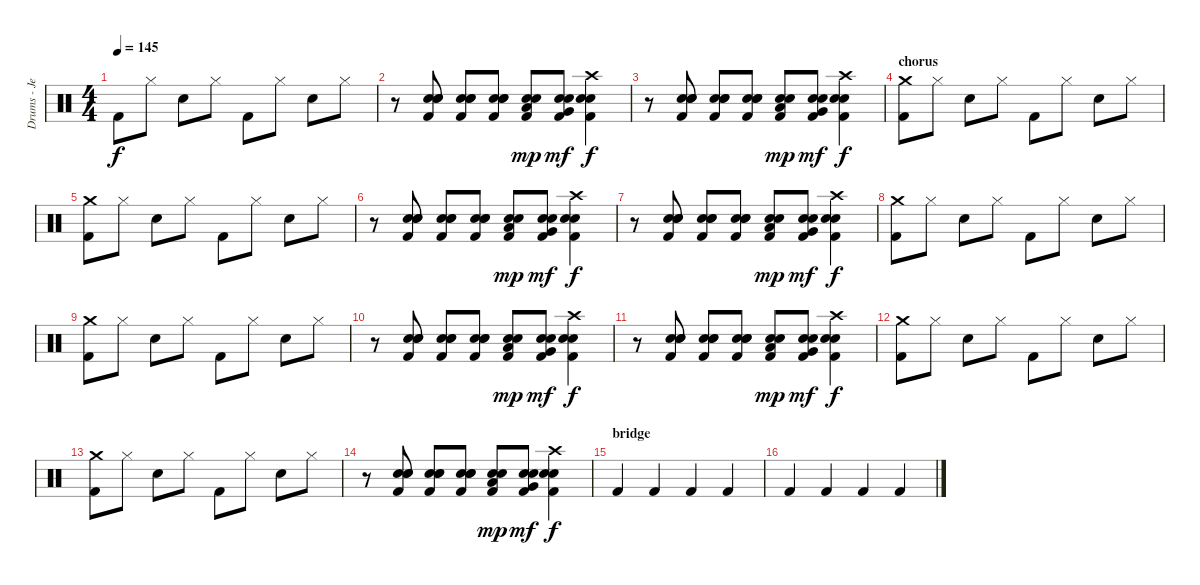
\track ("Drums - Jeremiah Green" "Drums - Je") {instrument percussion}
\staff {score}
\articulation defaults
\ts (4 4)
\tempo 145
\clef neutral
\ks c "Kick (hit) 2".8{dy f} "Hi-Hat (closed)".8 "Electric Snare (hit)".8 "Hi-Hat (closed)".8 "Kick (hit) 2".8 "Hi-Hat (closed)".8 "Electric Snare (hit)".8 "Hi-Hat (closed)".8
|
r.8 ("Snare (hit) 2" "Electric Snare (hit)" "Electric Snare (hit)" "Kick (hit) 2").8 ("Snare (hit) 2" "Electric Snare (hit)" "Electric Snare (hit)" "Kick (hit) 2").8 ("Snare (hit) 2" "Electric Snare (hit)" "Electric Snare (hit)" "Kick (hit) 2").8 ("Snare (hit) 2" "Low Tom (hit)" "Electric Snare (hit)" "Kick (hit) 2").8{dy mp} ("Snare (hit) 2" "Very Low Tom (hit)" "Electric Snare (hit)" "Kick (hit) 2").8{dy mf} ("Crash high (hit)" "Snare (hit) 2" "Electric Snare (hit)" "Kick (hit) 2").4{dy f} |
r.8 ("Snare (hit) 2" "Electric Snare (hit)" "Electric Snare (hit)" "Kick (hit) 2").8 ("Snare (hit) 2" "Electric Snare (hit)" "Electric Snare (hit)" "Kick (hit) 2").8 ("Snare (hit) 2" "Electric Snare (hit)" "Electric Snare (hit)" "Kick (hit) 2").8 ("Snare (hit) 2" "Low Tom (hit)" "Electric Snare (hit)" "Kick (hit) 2").8{dy mp} ("Snare (hit) 2" "Very Low Tom (hit)" "Electric Snare (hit)" "Kick (hit) 2").8{dy mf} ("Crash high (hit)" "Snare (hit) 2" "Electric Snare (hit)" "Kick (hit) 2").4{dy f} |
\section ("" "chorus")
("Crash medium (hit)" "Kick (hit) 2").8 "Hi-Hat (closed)".8 "Electric Snare (hit)".8 "Hi-Hat (closed)".8 "Kick (hit) 2".8 "Hi-Hat (closed)".8 "Electric Snare (hit)".8 "Hi-Hat (closed)".8 |
("Crash medium (hit)" "Kick (hit) 2").8 "Hi-Hat (closed)".8 "Electric Snare (hit)".8 "Hi-Hat (closed)".8 "Kick (hit) 2".8 "Hi-Hat (closed)".8 "Electric Snare (hit)".8 "Hi-Hat (closed)".8 |
r.8 ("Snare (hit) 2" "Electric Snare (hit)" "Electric Snare (hit)" "Kick (hit) 2").8 ("Snare (hit) 2" "Electric Snare (hit)" "Electric Snare (hit)" "Kick (hit) 2").8 ("Snare (hit) 2" "Electric Snare (hit)" "Electric Snare (hit)" "Kick (hit) 2").8 ("Snare (hit) 2" "Low Tom (hit)" "Electric Snare (hit)" "Kick (hit) 2").8{dy mp} ("Snare (hit) 2" "Very Low Tom (hit)" "Electric Snare (hit)" "Kick (hit) 2").8{dy mf} ("Crash high (hit)" "Snare (hit) 2" "Electric Snare (hit)" "Kick (hit) 2").4{dy f} |
r.8 ("Snare (hit) 2" "Electric Snare (hit)" "Electric Snare (hit)" "Kick (hit) 2").8 ("Snare (hit) 2" "Electric Snare (hit)" "Electric Snare (hit)" "Kick (hit) 2").8 ("Snare (hit) 2" "Electric Snare (hit)" "Electric Snare (hit)" "Kick (hit) 2").8 ("Snare (hit) 2" "Low Tom (hit)" "Electric Snare (hit)" "Kick (hit) 2").8{dy mp} ("Snare (hit) 2" "Very Low Tom (hit)" "Electric Snare (hit)" "Kick (hit) 2").8{dy mf} ("Crash high (hit)" "Snare (hit) 2" "Electric Snare (hit)" "Kick (hit) 2").4{dy f} |
("Crash medium (hit)" "Kick (hit) 2").8 "Hi-Hat (closed)".8 "Electric Snare (hit)".8 "Hi-Hat (closed)".8 "Kick (hit) 2".8 "Hi-Hat (closed)".8 "Electric Snare (hit)".8 "Hi-Hat (closed)".8 |
("Crash medium (hit)" "Kick (hit) 2").8 "Hi-Hat (closed)".8 "Electric Snare (hit)".8 "Hi-Hat (closed)".8 "Kick (hit) 2".8 "Hi-Hat (closed)".8 "Electric Snare (hit)".8 "Hi-Hat (closed)".8 |
r.8 ("Snare (hit) 2" "Electric Snare (hit)" "Electric Snare (hit)" "Kick (hit) 2").8 ("Snare (hit) 2" "Electric Snare (hit)" "Electric Snare (hit)" "Kick (hit) 2").8 ("Snare (hit) 2" "Electric Snare (hit)" "Electric Snare (hit)" "Kick (hit) 2").8 ("Snare (hit) 2" "Low Tom (hit)" "Electric Snare (hit)" "Kick (hit) 2").8{dy mp} ("Snare (hit) 2" "Very Low Tom (hit)" "Electric Snare (hit)" "Kick (hit) 2").8{dy mf} ("Crash high (hit)" "Snare (hit) 2" "Electric Snare (hit)" "Kick (hit) 2").4{dy f} |
r.8 ("Snare (hit) 2" "Electric Snare (hit)" "Electric Snare (hit)" "Kick (hit) 2").8 ("Snare (hit) 2" "Electric Snare (hit)" "Electric Snare (hit)" "Kick (hit) 2").8 ("Snare (hit) 2" "Electric Snare (hit)" "Electric Snare (hit)" "Kick (hit) 2").8 ("Snare (hit) 2" "Low Tom (hit)" "Electric Snare (hit)" "Kick (hit) 2").8{dy mp} ("Snare (hit) 2" "Very Low Tom (hit)" "Electric Snare (hit)" "Kick (hit) 2").8{dy mf} ("Crash high (hit)" "Snare (hit) 2" "Electric Snare (hit)" "Kick (hit) 2").4{dy f} |
("Crash medium (hit)" "Kick (hit) 2").8 "Hi-Hat (closed)".8 "Electric Snare (hit)".8 "Hi-Hat (closed)".8 "Kick (hit) 2".8 "Hi-Hat (closed)".8 "Electric Snare (hit)".8 "Hi-Hat (closed)".8 |
("Crash medium (hit)" "Kick (hit) 2").8 "Hi-Hat (closed)".8 "Electric Snare (hit)".8 "Hi-Hat (closed)".8 "Kick (hit) 2".8 "Hi-Hat (closed)".8 "Electric Snare (hit)".8 "Hi-Hat (closed)".8 |
r.8 ("Snare (hit) 2" "Electric Snare (hit)" "Electric Snare (hit)" "Kick (hit) 2").8 ("Snare (hit) 2" "Electric Snare (hit)" "Electric Snare (hit)" "Kick (hit) 2").8 ("Snare (hit) 2" "Electric Snare (hit)" "Electric Snare (hit)" "Kick (hit) 2").8 ("Snare (hit) 2" "Low Tom (hit)" "Electric Snare (hit)" "Kick (hit) 2").8{dy mp} ("Snare (hit) 2" "Very Low Tom (hit)" "Electric Snare (hit)" "Kick (hit) 2").8{dy mf} ("Crash high (hit)" "Snare (hit) 2" "Electric Snare (hit)" "Kick (hit) 2").4{dy f} |
\section ("" "bridge")
"Kick (hit) 2".4 "Kick (hit) 2".4 "Kick (hit) 2".4 "Kick (hit) 2".4 |
"Kick (hit) 2".4 "Kick (hit) 2".4 "Kick (hit) 2".4 "Kick (hit) 2".4
